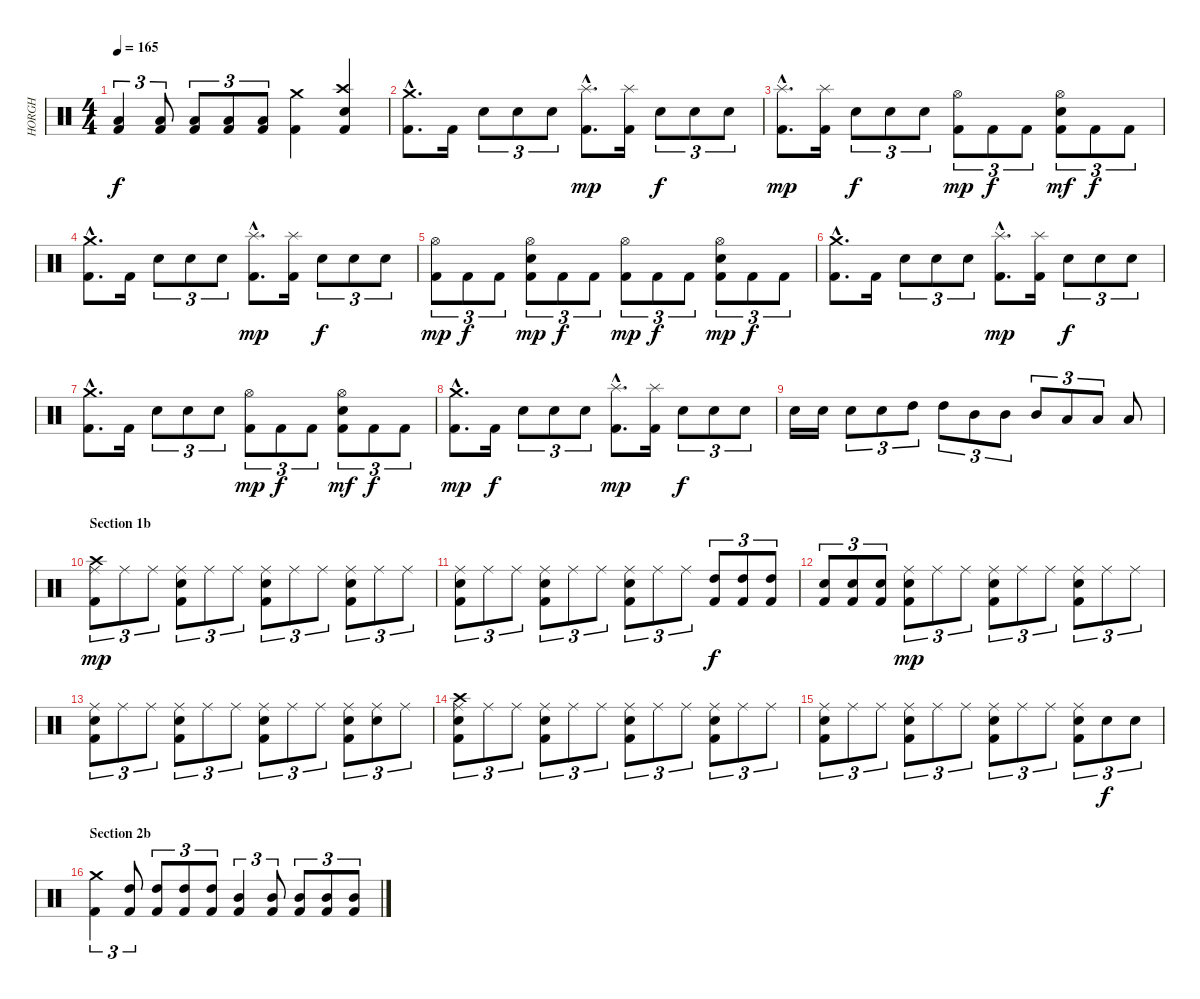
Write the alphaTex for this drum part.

\track ("HORGH" "HORGH") {instrument percussion}
\staff {score}
\articulation defaults
\ts (4 4)
\tempo 165
\clef neutral
\ks c
("Low Tom (hit)" "Kick (hit) 2").4{tu (3 2) dy f} ("Low Tom (hit)" "Kick (hit) 2").8{tu (3 2)} ("Low Tom (hit)" "Kick (hit) 2").8{tu (3 2)} ("Low Tom (hit)" "Kick (hit) 2").8{tu (3 2)} ("Low Tom (hit)" "Kick (hit) 2").8{tu (3 2)} ("Crash medium (hit)" "Kick (hit) 2").4 ("Crash high (hit)" "Electric Snare (hit)" "Kick (hit) 2").4 |
("Crash medium (hit)"{hac} "Kick (hit) 2"{hac}).8{d} "Kick (hit) 2".16 "Electric Snare (hit)".8{tu (3 2)} "Electric Snare (hit)".8{tu (3 2)} "Electric Snare (hit)".8{tu (3 2)} ("Splash (hit)"{hac} "Kick (hit) 2"{hac}).8{d dy mp} ("Splash (hit)" "Kick (hit) 2").16 "Electric Snare (hit)".8{tu (3 2) dy f} "Electric Snare (hit)".8{tu (3 2)} "Electric Snare (hit)".8{tu (3 2)} |
("Splash (hit)"{hac} "Kick (hit) 2"{hac}).8{d dy mp} ("Splash (hit)" "Kick (hit) 2").16 "Electric Snare (hit)".8{tu (3 2) dy f} "Electric Snare (hit)".8{tu (3 2)} "Electric Snare (hit)".8{tu (3 2)} ("Hi-Hat (open)" "Kick (hit) 2").8{tu (3 2) dy mp} "Kick (hit) 2".8{tu (3 2) dy f} "Kick (hit) 2".8{tu (3 2)} ("Hi-Hat (open)" "Electric Snare (hit)" "Kick (hit) 2").8{tu (3 2) dy mf} "Kick (hit) 2".8{tu (3 2) dy f} "Kick (hit) 2".8{tu (3 2)} |
("Crash medium (hit)"{hac} "Kick (hit) 2"{hac}).8{d} "Kick (hit) 2".16 "Electric Snare (hit)".8{tu (3 2)} "Electric Snare (hit)".8{tu (3 2)} "Electric Snare (hit)".8{tu (3 2)} ("Splash (hit)"{hac} "Kick (hit) 2"{hac}).8{d dy mp} ("Splash (hit)" "Kick (hit) 2").16 "Electric Snare (hit)".8{tu (3 2) dy f} "Electric Snare (hit)".8{tu (3 2)} "Electric Snare (hit)".8{tu (3 2)} |
("Hi-Hat (open)" "Kick (hit) 2").8{tu (3 2) dy mp} "Kick (hit) 2".8{tu (3 2) dy f} "Kick (hit) 2".8{tu (3 2)} ("Hi-Hat (open)" "Electric Snare (hit)" "Kick (hit) 2").8{tu (3 2) dy mp} "Kick (hit) 2".8{tu (3 2) dy f} "Kick (hit) 2".8{tu (3 2)} ("Hi-Hat (open)" "Kick (hit) 2").8{tu (3 2) dy mp} "Kick (hit) 2".8{tu (3 2) dy f} "Kick (hit) 2".8{tu (3 2)} ("Hi-Hat (open)" "Electric Snare (hit)" "Kick (hit) 2").8{tu (3 2) dy mp} "Kick (hit) 2".8{tu (3 2) dy f} "Kick (hit) 2".8{tu (3 2)} |
("Crash medium (hit)"{hac} "Kick (hit) 2"{hac}).8{d} "Kick (hit) 2".16 "Electric Snare (hit)".8{tu (3 2)} "Electric Snare (hit)".8{tu (3 2)} "Electric Snare (hit)".8{tu (3 2)} ("Splash (hit)"{hac} "Kick (hit) 2"{hac}).8{d dy mp} ("Splash (hit)" "Kick (hit) 2").16 "Electric Snare (hit)".8{tu (3 2) dy f} "Electric Snare (hit)".8{tu (3 2)} "Electric Snare (hit)".8{tu (3 2)} |
("Crash medium (hit)"{hac} "Kick (hit) 2"{hac}).8{d} "Kick (hit) 2".16 "Electric Snare (hit)".8{tu (3 2)} "Electric Snare (hit)".8{tu (3 2)} "Electric Snare (hit)".8{tu (3 2)} ("Hi-Hat (open)" "Kick (hit) 2").8{tu (3 2) dy mp} "Kick (hit) 2".8{tu (3 2) dy f} "Kick (hit) 2".8{tu (3 2)} ("Hi-Hat (open)" "Electric Snare (hit)" "Kick (hit) 2").8{tu (3 2) dy mf} "Kick (hit) 2".8{tu (3 2) dy f} "Kick (hit) 2".8{tu (3 2)} |
("Crash medium (hit)"{hac} "Kick (hit) 2"{hac}).8{d dy mp} "Kick (hit) 2".16{dy f} "Electric Snare (hit)".8{tu (3 2)} "Electric Snare (hit)".8{tu (3 2)} "Electric Snare (hit)".8{tu (3 2)} ("Splash (hit)"{hac} "Kick (hit) 2"{hac}).8{d dy mp} ("Splash (hit)" "Kick (hit) 2").16 "Electric Snare (hit)".8{tu (3 2) dy f} "Electric Snare (hit)".8{tu (3 2)} "Electric Snare (hit)".8{tu (3 2)} |
"Electric Snare (hit)".16 "Electric Snare (hit)".16 "Electric Snare (hit)".8{tu (3 2)} "Electric Snare (hit)".8{tu (3 2)} "High Tom (hit)".8{tu (3 2)} "High Tom (hit)".8{tu (3 2)} "Mid Tom (hit)".8{tu (3 2)} "Mid Tom (hit)".8{tu (3 2)} "Mid Tom (hit)".8{tu (3 2)} "Low Tom (hit)".8{tu (3 2)} "Low Tom (hit)".8{tu (3 2)} "Low Tom (hit)".8 |
\section ("" "Section 1b")
("Ride (middle)" "Crash high (hit)" "Kick (hit) 2").8{tu (3 2) dy mp} "Ride (middle)".8{tu (3 2)} "Ride (middle)".8{tu (3 2)} ("Ride (middle)" "Electric Snare (hit)" "Kick (hit) 2").8{tu (3 2)} "Ride (middle)".8{tu (3 2)} "Ride (middle)".8{tu (3 2)} ("Ride (middle)" "Electric Snare (hit)" "Kick (hit) 2").8{tu (3 2)} "Ride (middle)".8{tu (3 2)} "Ride (middle)".8{tu (3 2)} ("Ride (middle)" "Electric Snare (hit)" "Kick (hit) 2").8{tu (3 2)} "Ride (middle)".8{tu (3 2)} "Ride (middle)".8{tu (3 2)} |
("Ride (middle)" "Kick (hit) 2" "Electric Snare (hit)").8{tu (3 2)} "Ride (middle)".8{tu (3 2)} "Ride (middle)".8{tu (3 2)} ("Ride (middle)" "Electric Snare (hit)" "Kick (hit) 2").8{tu (3 2)} "Ride (middle)".8{tu (3 2)} "Ride (middle)".8{tu (3 2)} ("Ride (middle)" "Electric Snare (hit)" "Kick (hit) 2").8{tu (3 2)} "Ride (middle)".8{tu (3 2)} "Ride (middle)".8{tu (3 2)} ("High Tom (hit)" "Kick (hit) 2").8{tu (3 2) dy f} ("High Tom (hit)" "Kick (hit) 2").8{tu (3 2)} ("High Tom (hit)" "Kick (hit) 2").8{tu (3 2)} |
("Electric Snare (hit)" "Kick (hit) 2").8{tu (3 2)} ("Electric Snare (hit)" "Kick (hit) 2").8{tu (3 2)} ("Electric Snare (hit)" "Kick (hit) 2").8{tu (3 2)} ("Ride (middle)" "Electric Snare (hit)" "Kick (hit) 2").8{tu (3 2) dy mp} "Ride (middle)".8{tu (3 2)} "Ride (middle)".8{tu (3 2)} ("Ride (middle)" "Electric Snare (hit)" "Kick (hit) 2").8{tu (3 2)} "Ride (middle)".8{tu (3 2)} "Ride (middle)".8{tu (3 2)} ("Ride (middle)" "Electric Snare (hit)" "Kick (hit) 2").8{tu (3 2)} "Ride (middle)".8{tu (3 2)} "Ride (middle)".8{tu (3 2)} |
("Ride (middle)" "Kick (hit) 2" "Electric Snare (hit)").8{tu (3 2)} "Ride (middle)".8{tu (3 2)} "Ride (middle)".8{tu (3 2)} ("Ride (middle)" "Electric Snare (hit)" "Kick (hit) 2").8{tu (3 2)} "Ride (middle)".8{tu (3 2)} "Ride (middle)".8{tu (3 2)} ("Ride (middle)" "Electric Snare (hit)" "Kick (hit) 2").8{tu (3 2)} "Ride (middle)".8{tu (3 2)} "Ride (middle)".8{tu (3 2)} ("Ride (middle)" "Electric Snare (hit)" "Kick (hit) 2").8{tu (3 2)} ("Ride (middle)" "Electric Snare (hit)").8{tu (3 2)} "Ride (middle)".8{tu (3 2)} |
("Ride (middle)" "Crash high (hit)" "Kick (hit) 2" "Electric Snare (hit)").8{tu (3 2)} "Ride (middle)".8{tu (3 2)} "Ride (middle)".8{tu (3 2)} ("Ride (middle)" "Electric Snare (hit)" "Kick (hit) 2").8{tu (3 2)} "Ride (middle)".8{tu (3 2)} "Ride (middle)".8{tu (3 2)} ("Ride (middle)" "Electric Snare (hit)" "Kick (hit) 2").8{tu (3 2)} "Ride (middle)".8{tu (3 2)} "Ride (middle)".8{tu (3 2)} ("Ride (middle)" "Electric Snare (hit)" "Kick (hit) 2").8{tu (3 2)} "Ride (middle)".8{tu (3 2)} "Ride (middle)".8{tu (3 2)} |
("Ride (middle)" "Kick (hit) 2" "Electric Snare (hit)").8{tu (3 2)} "Ride (middle)".8{tu (3 2)} "Ride (middle)".8{tu (3 2)} ("Ride (middle)" "Electric Snare (hit)" "Kick (hit) 2").8{tu (3 2)} "Ride (middle)".8{tu (3 2)} "Ride (middle)".8{tu (3 2)} ("Ride (middle)" "Electric Snare (hit)" "Kick (hit) 2").8{tu (3 2)} "Ride (middle)".8{tu (3 2)} "Ride (middle)".8{tu (3 2)} ("Ride (middle)" "Electric Snare (hit)" "Kick (hit) 2").8{tu (3 2)} "Electric Snare (hit)".8{tu (3 2) dy f} "Electric Snare (hit)".8{tu (3 2)} |
\section ("" "Section 2b")
("Crash medium (hit)" "Kick (hit) 2").4{tu (3 2)} ("High Tom (hit)" "Kick (hit) 2").8{tu (3 2)} ("High Tom (hit)" "Kick (hit) 2").8{tu (3 2)} ("High Tom (hit)" "Kick (hit) 2").8{tu (3 2)} ("High Tom (hit)" "Kick (hit) 2").8{tu (3 2)} ("Mid Tom (hit)" "Kick (hit) 2").4{tu (3 2)} ("Mid Tom (hit)" "Kick (hit) 2").8{tu (3 2)} ("Mid Tom (hit)" "Kick (hit) 2").8{tu (3 2)} ("Mid Tom (hit)" "Kick (hit) 2").8{tu (3 2)} ("Mid Tom (hit)" "Kick (hit) 2").8{tu (3 2)}
